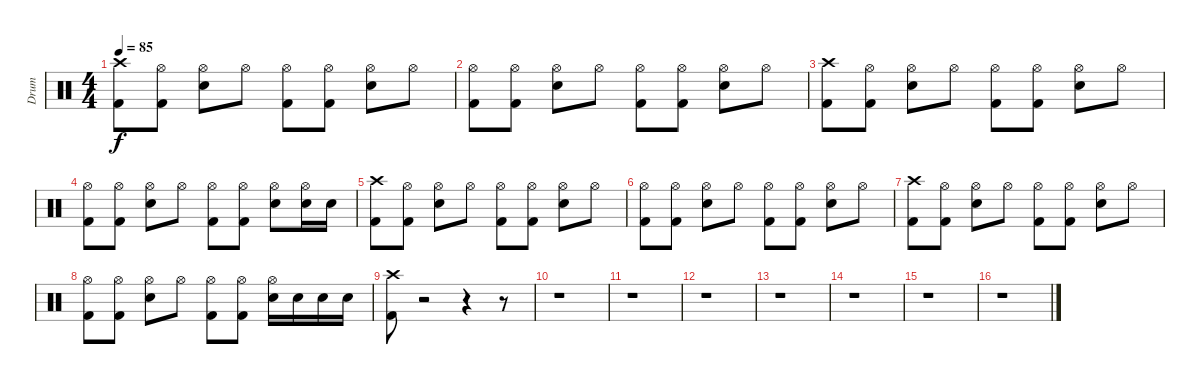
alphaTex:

\track ("Drum" "Drum") {instrument percussion}
\staff {score}
\articulation defaults
\ts (4 4)
\tempo 85
\clef neutral
\ks c
("Crash high (hit)" "Kick (hit) 2").8{dy f} ("Hi-Hat (open)" "Kick (hit) 2").8 ("Hi-Hat (open)" "Electric Snare (hit)").8 "Hi-Hat (open)".8 ("Hi-Hat (open)" "Kick (hit) 2").8 ("Hi-Hat (open)" "Kick (hit) 2").8 ("Hi-Hat (open)" "Electric Snare (hit)").8 "Hi-Hat (open)".8 |
("Hi-Hat (open)" "Kick (hit) 2").8 ("Hi-Hat (open)" "Kick (hit) 2").8 ("Hi-Hat (open)" "Electric Snare (hit)").8 "Hi-Hat (open)".8 ("Hi-Hat (open)" "Kick (hit) 2").8 ("Hi-Hat (open)" "Kick (hit) 2").8 ("Hi-Hat (open)" "Electric Snare (hit)").8 "Hi-Hat (open)".8 |
("Crash high (hit)" "Kick (hit) 2").8 ("Hi-Hat (open)" "Kick (hit) 2").8 ("Hi-Hat (open)" "Electric Snare (hit)").8 "Hi-Hat (open)".8 ("Hi-Hat (open)" "Kick (hit) 2").8 ("Hi-Hat (open)" "Kick (hit) 2").8 ("Hi-Hat (open)" "Electric Snare (hit)").8 "Hi-Hat (open)".8 |
("Hi-Hat (open)" "Kick (hit) 2").8 ("Hi-Hat (open)" "Kick (hit) 2").8 ("Hi-Hat (open)" "Electric Snare (hit)").8 "Hi-Hat (open)".8 ("Hi-Hat (open)" "Kick (hit) 2").8 ("Hi-Hat (open)" "Kick (hit) 2").8 ("Hi-Hat (open)" "Electric Snare (hit)").8 ("Hi-Hat (open)" "Electric Snare (hit)").16 "Electric Snare (hit)".16 |
("Crash high (hit)" "Kick (hit) 2").8 ("Hi-Hat (open)" "Kick (hit) 2").8 ("Hi-Hat (open)" "Electric Snare (hit)").8 "Hi-Hat (open)".8 ("Hi-Hat (open)" "Kick (hit) 2").8 ("Hi-Hat (open)" "Kick (hit) 2").8 ("Hi-Hat (open)" "Electric Snare (hit)").8 "Hi-Hat (open)".8 |
("Hi-Hat (open)" "Kick (hit) 2").8 ("Hi-Hat (open)" "Kick (hit) 2").8 ("Hi-Hat (open)" "Electric Snare (hit)").8 "Hi-Hat (open)".8 ("Hi-Hat (open)" "Kick (hit) 2").8 ("Hi-Hat (open)" "Kick (hit) 2").8 ("Hi-Hat (open)" "Electric Snare (hit)").8 "Hi-Hat (open)".8 |
("Crash high (hit)" "Kick (hit) 2").8 ("Hi-Hat (open)" "Kick (hit) 2").8 ("Hi-Hat (open)" "Electric Snare (hit)").8 "Hi-Hat (open)".8 ("Hi-Hat (open)" "Kick (hit) 2").8 ("Hi-Hat (open)" "Kick (hit) 2").8 ("Hi-Hat (open)" "Electric Snare (hit)").8 "Hi-Hat (open)".8 |
("Hi-Hat (open)" "Kick (hit) 2").8 ("Hi-Hat (open)" "Kick (hit) 2").8 ("Hi-Hat (open)" "Electric Snare (hit)").8 "Hi-Hat (open)".8 ("Hi-Hat (open)" "Kick (hit) 2").8 ("Hi-Hat (open)" "Kick (hit) 2").8 ("Hi-Hat (open)" "Electric Snare (hit)").16 "Electric Snare (hit)".16 "Electric Snare (hit)".16 "Electric Snare (hit)".16 |
("Crash high (hit)" "Kick (hit) 2").8 r.2 r.4 r.8 |
r.1 |
r.1 |
r.1 |
r.1 |
r.1 |
r.1 |
r.1
